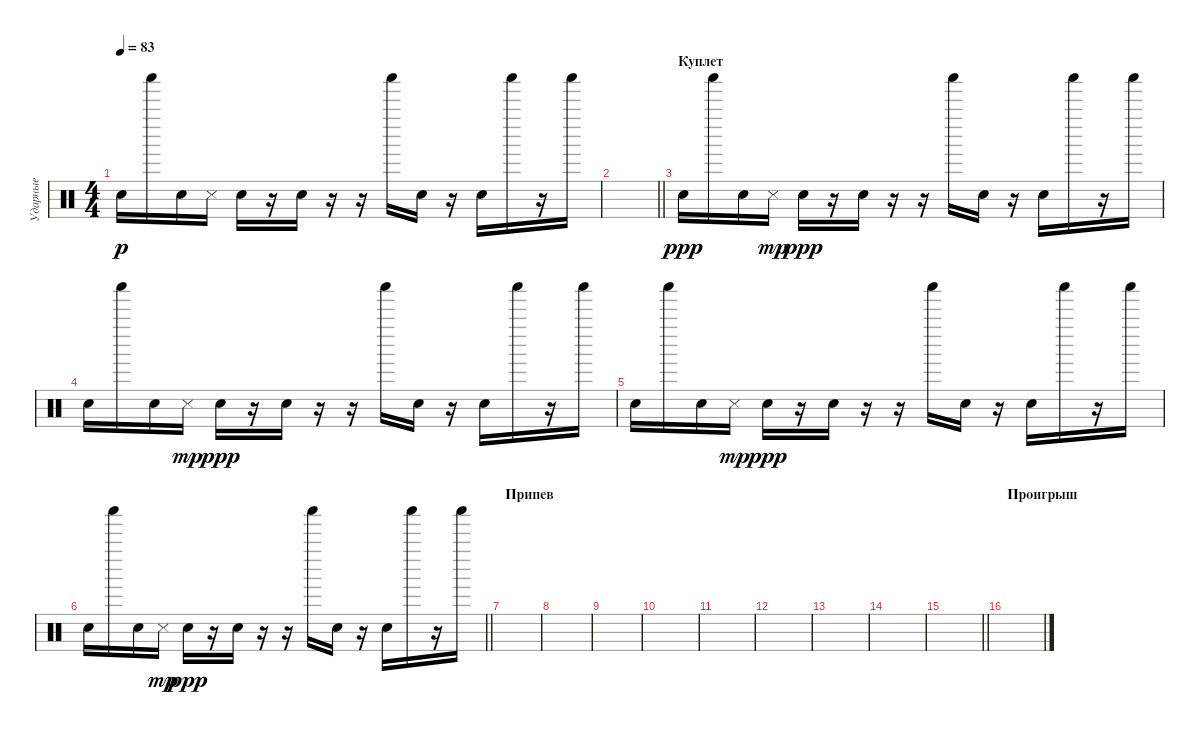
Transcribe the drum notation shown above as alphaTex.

\track ("Ударные" "Ударные") {instrument percussion}
\staff {score}
\articulation defaults
\ts (4 4)
\tempo 83
\clef neutral
\ks c "Snare (hit)".16{dy p} "Shaker (hit)".16 "Snare (hit)".16 "Snare (side stick) 3".16 "Snare (hit)".16
r.16 "Snare (hit)".16 r.16 r.16 "Shaker (hit)".16 "Snare (hit)".16 r.16 "Snare (hit)".16 "Shaker (hit)".16 r.16 "Shaker (hit)".16 |
\barLineRight lightlight
|
\section ("" "Куплет")
"Snare (hit)".16{dy ppp} "Shaker (hit)".16 "Snare (hit)".16 "Snare (side stick) 3".16{dy mp} "Snare (hit)".16{dy ppp} r.16 "Snare (hit)".16 r.16 r.16 "Shaker (hit)".16 "Snare (hit)".16 r.16 "Snare (hit)".16 "Shaker (hit)".16 r.16 "Shaker (hit)".16 |
"Snare (hit)".16 "Shaker (hit)".16 "Snare (hit)".16 "Snare (side stick) 3".16{dy mp} "Snare (hit)".16{dy ppp} r.16 "Snare (hit)".16 r.16 r.16 "Shaker (hit)".16 "Snare (hit)".16 r.16 "Snare (hit)".16 "Shaker (hit)".16 r.16 "Shaker (hit)".16 |
"Snare (hit)".16 "Shaker (hit)".16 "Snare (hit)".16 "Snare (side stick) 3".16{dy mp} "Snare (hit)".16{dy ppp} r.16 "Snare (hit)".16 r.16 r.16 "Shaker (hit)".16 "Snare (hit)".16 r.16 "Snare (hit)".16 "Shaker (hit)".16 r.16 "Shaker (hit)".16 |
\barLineRight lightlight "Snare (hit)".16 "Shaker (hit)".16 "Snare (hit)".16 "Snare (side stick) 3".16{dy mp} "Snare (hit)".16{dy ppp}
r.16 "Snare (hit)".16 r.16 r.16 "Shaker (hit)".16 "Snare (hit)".16 r.16 "Snare (hit)".16 "Shaker (hit)".16 r.16 "Shaker (hit)".16 |
\section ("" "Припев")
|
|
|
|
|
|
|
|
\barLineRight lightlight
|
\section ("" "Проигрыш")
